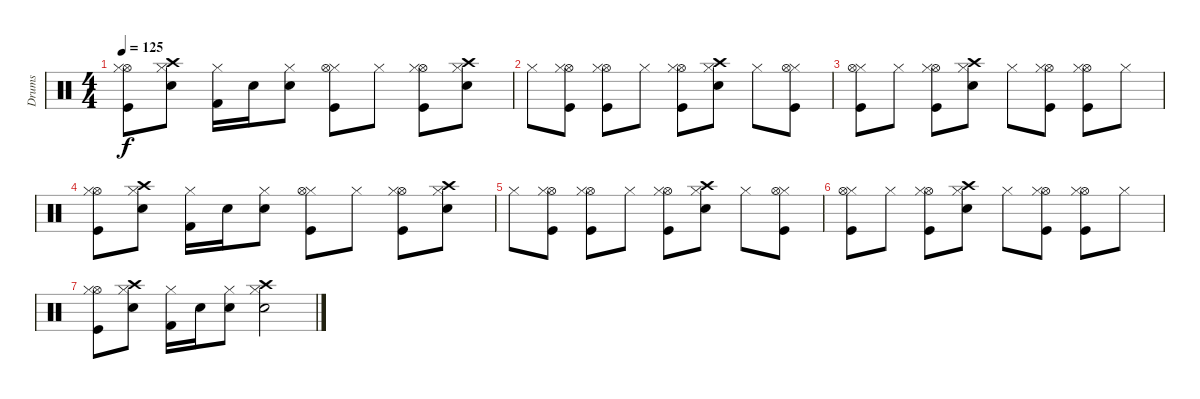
\track ("Drums" "Drums") {instrument percussion}
\staff {score}
\articulation defaults
\ts (4 4)
\tempo 125
\clef neutral
\ks c
("Kick (hit)" "Hi-Hat (open)" "Hi-Hat (closed)").8{dy f} ("Electric Snare (hit)" "Crash high (hit)" "Hi-Hat (closed)").8 ("Kick (hit) 2" "Hi-Hat (closed)").16 "Electric Snare (hit)".16 ("Electric Snare (hit)" "Hi-Hat (closed)").8 ("Hi-Hat (closed)" "Hi-Hat (open)" "Kick (hit)").8 "Hi-Hat (closed)".8 ("Hi-Hat (open)" "Kick (hit)" "Hi-Hat (closed)").8 ("Electric Snare (hit)" "Crash high (hit)" "Hi-Hat (closed)").8 |
"Hi-Hat (closed)".8 ("Kick (hit)" "Hi-Hat (open)" "Hi-Hat (closed)").8 ("Hi-Hat (open)" "Kick (hit)" "Hi-Hat (closed)").8 "Hi-Hat (closed)".8 ("Hi-Hat (open)" "Kick (hit)" "Hi-Hat (closed)").8 ("Crash high (hit)" "Electric Snare (hit)" "Hi-Hat (closed)").8 "Hi-Hat (closed)".8 ("Kick (hit)" "Hi-Hat (closed)" "Hi-Hat (open)").8 |
("Hi-Hat (closed)" "Hi-Hat (open)" "Kick (hit)").8 "Hi-Hat (closed)".8 ("Hi-Hat (open)" "Kick (hit)" "Hi-Hat (closed)").8 ("Crash high (hit)" "Hi-Hat (closed)" "Electric Snare (hit)").8 "Hi-Hat (closed)".8 ("Kick (hit)" "Hi-Hat (open)" "Hi-Hat (closed)").8 ("Hi-Hat (open)" "Kick (hit)" "Hi-Hat (closed)").8 "Hi-Hat (closed)".8 |
("Kick (hit)" "Hi-Hat (open)" "Hi-Hat (closed)").8 ("Electric Snare (hit)" "Crash high (hit)" "Hi-Hat (closed)").8 ("Kick (hit) 2" "Hi-Hat (closed)").16 "Electric Snare (hit)".16 ("Electric Snare (hit)" "Hi-Hat (closed)").8 ("Hi-Hat (closed)" "Hi-Hat (open)" "Kick (hit)").8 "Hi-Hat (closed)".8 ("Hi-Hat (open)" "Kick (hit)" "Hi-Hat (closed)").8 ("Electric Snare (hit)" "Crash high (hit)" "Hi-Hat (closed)").8 |
"Hi-Hat (closed)".8 ("Kick (hit)" "Hi-Hat (open)" "Hi-Hat (closed)").8 ("Hi-Hat (open)" "Kick (hit)" "Hi-Hat (closed)").8 "Hi-Hat (closed)".8 ("Hi-Hat (open)" "Kick (hit)" "Hi-Hat (closed)").8 ("Crash high (hit)" "Electric Snare (hit)" "Hi-Hat (closed)").8 "Hi-Hat (closed)".8 ("Kick (hit)" "Hi-Hat (closed)" "Hi-Hat (open)").8 |
("Hi-Hat (closed)" "Hi-Hat (open)" "Kick (hit)").8 "Hi-Hat (closed)".8 ("Hi-Hat (open)" "Kick (hit)" "Hi-Hat (closed)").8 ("Crash high (hit)" "Hi-Hat (closed)" "Electric Snare (hit)").8 "Hi-Hat (closed)".8 ("Kick (hit)" "Hi-Hat (open)" "Hi-Hat (closed)").8 ("Hi-Hat (open)" "Kick (hit)" "Hi-Hat (closed)").8 "Hi-Hat (closed)".8 |
("Kick (hit)" "Hi-Hat (open)" "Hi-Hat (closed)").8 ("Electric Snare (hit)" "Crash high (hit)" "Hi-Hat (closed)").8 ("Kick (hit) 2" "Hi-Hat (closed)").16 "Electric Snare (hit)".16 ("Electric Snare (hit)" "Hi-Hat (closed)").8 ("Electric Snare (hit)" "Crash high (hit)" "Hi-Hat (closed)").2
